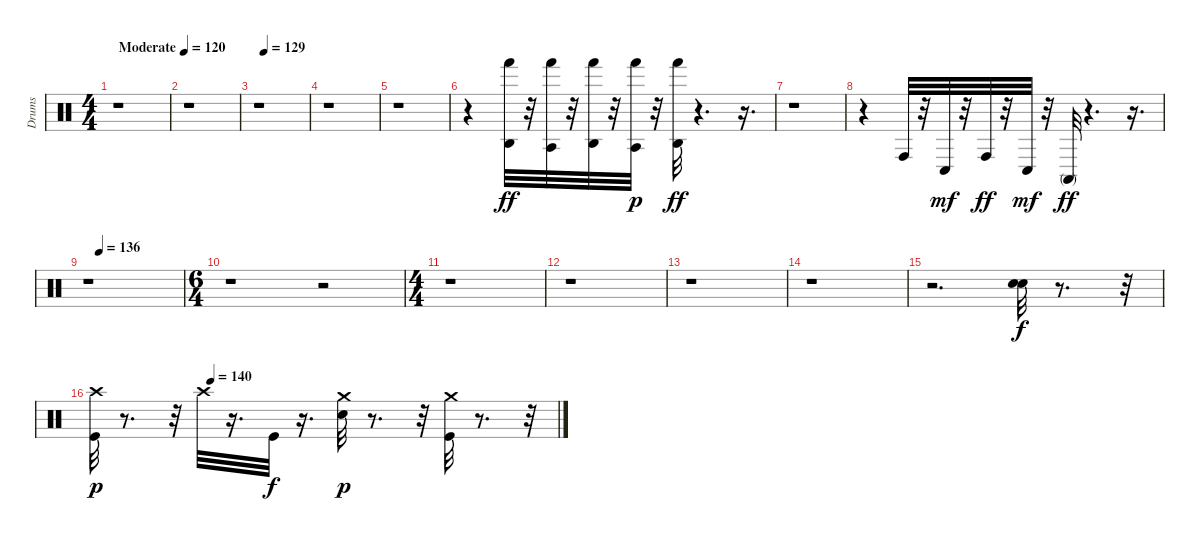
\track ("Drums" "Drums") {instrument percussion}
\staff {score}
\articulation defaults
\ts (4 4)
\tempo (120 "Moderate")
\clef neutral
\ks c
r.1{dy ff} |
r.1 |
\tempo (129 0.125)
r.1 |
r.1 |
r.1 |
r.4 ("Agogo high (hit)" "Hand (hit)").32{balance 10} r.32 ("Agogo tow (hit)" "Hand (hit)").32 r.32 ("Agogo high (hit)" "Hand (hit)").32 r.32 ("Hand (hit)" "Agogo tow (hit)").32{dy p} r.32 ("Agogo high (hit)" "Hand (hit)").32{dy ff} r.4{d} r.16{d} |
r.1 |
r.4 "Conga high (hit)".32 r.32 "Conga low (hit)".32{dy mf} r.32 "Conga high (hit)".32{dy ff} r.32 "Conga low (hit)".32{dy mf} r.32 "Conga high (mute)".32{dy ff} r.4{d} r.16{d} |
\tempo (136 0.125)
r.1 |
\ts (6 4)
r.1 r.2 |
\ts (4 4)
r.1 |
r.1 |
r.1 |
r.1 |
r.2{d} ("Electric Snare (hit)" "Snare (hit) 2").32{dy f balance 8} r.8{d} r.32 |
\tempo (140 0.25)
("Crash high (hit)" "Kick (hit)").32{dy p} r.8{d} r.32 "Crash high (hit)".32 r.16{d} "Kick (hit)".32{dy f} r.16{d} ("Snare (hit) 2" "Crash medium (hit)").32{dy p} r.8{d} r.32 ("Crash medium (hit)" "Kick (hit)").32 r.8{d} r.32
